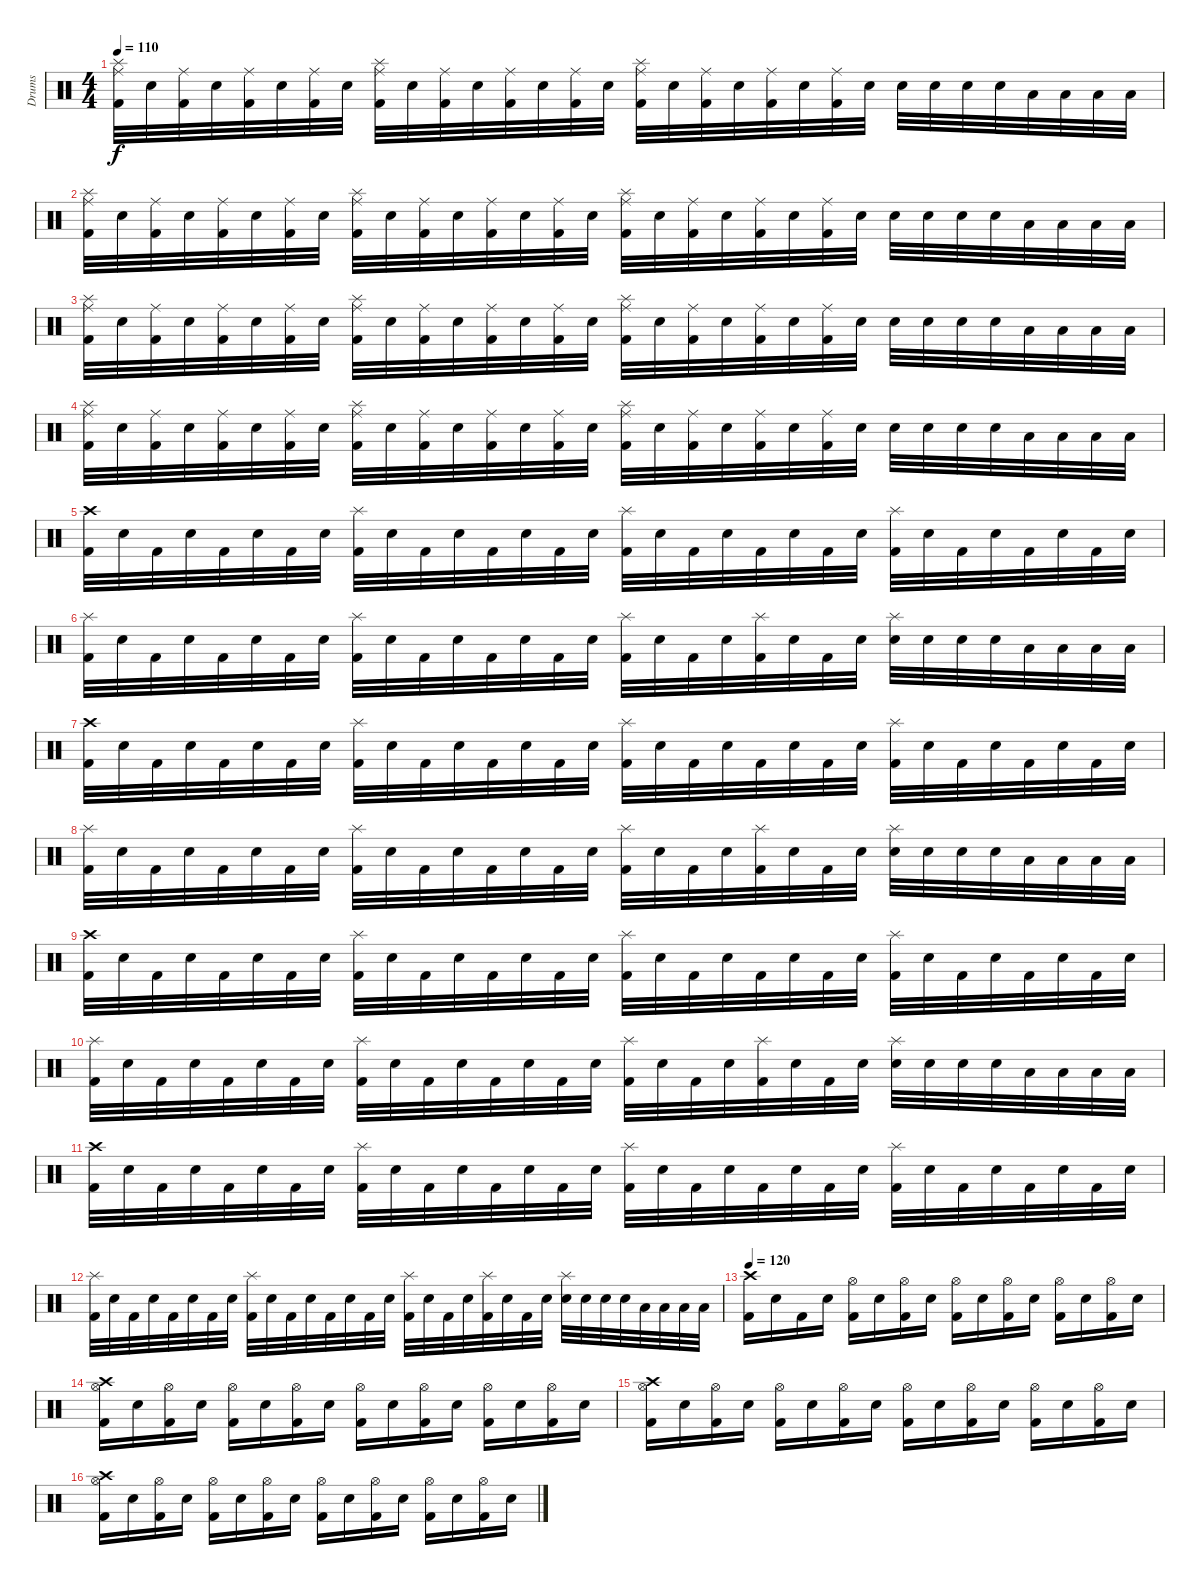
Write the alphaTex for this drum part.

\track ("Drums" "Drums") {instrument percussion}
\staff {score}
\articulation defaults
\ts (4 4)
\tempo 110
\clef neutral
\ks c
("Ride (middle)" "Splash (hit)" "Kick (hit) 2").32{dy f} "Electric Snare (hit)".32 ("Ride (middle)" "Kick (hit) 2").32 "Electric Snare (hit)".32 ("Ride (middle)" "Kick (hit) 2").32 "Electric Snare (hit)".32 ("Ride (middle)" "Kick (hit) 2").32 "Electric Snare (hit)".32 ("Ride (middle)" "Splash (hit)" "Kick (hit) 2").32 "Electric Snare (hit)".32 ("Ride (middle)" "Kick (hit) 2").32 "Electric Snare (hit)".32 ("Ride (middle)" "Kick (hit) 2").32 "Electric Snare (hit)".32 ("Ride (middle)" "Kick (hit) 2").32 "Electric Snare (hit)".32 ("Ride (middle)" "Splash (hit)" "Kick (hit) 2").32 "Electric Snare (hit)".32 ("Ride (middle)" "Kick (hit) 2").32 "Electric Snare (hit)".32 ("Ride (middle)" "Kick (hit) 2").32 "Electric Snare (hit)".32 ("Ride (middle)" "Kick (hit) 2").32 "Electric Snare (hit)".32 "Electric Snare (hit)".32 "Electric Snare (hit)".32 "Electric Snare (hit)".32 "Electric Snare (hit)".32 "Low Tom (hit)".32 "Low Tom (hit)".32 "Low Tom (hit)".32 "Low Tom (hit)".32 |
("Ride (middle)" "Splash (hit)" "Kick (hit) 2").32 "Electric Snare (hit)".32 ("Ride (middle)" "Kick (hit) 2").32 "Electric Snare (hit)".32 ("Ride (middle)" "Kick (hit) 2").32 "Electric Snare (hit)".32 ("Ride (middle)" "Kick (hit) 2").32 "Electric Snare (hit)".32 ("Ride (middle)" "Splash (hit)" "Kick (hit) 2").32 "Electric Snare (hit)".32 ("Ride (middle)" "Kick (hit) 2").32 "Electric Snare (hit)".32 ("Ride (middle)" "Kick (hit) 2").32 "Electric Snare (hit)".32 ("Ride (middle)" "Kick (hit) 2").32 "Electric Snare (hit)".32 ("Ride (middle)" "Splash (hit)" "Kick (hit) 2").32 "Electric Snare (hit)".32 ("Ride (middle)" "Kick (hit) 2").32 "Electric Snare (hit)".32 ("Ride (middle)" "Kick (hit) 2").32 "Electric Snare (hit)".32 ("Ride (middle)" "Kick (hit) 2").32 "Electric Snare (hit)".32 "Electric Snare (hit)".32 "Electric Snare (hit)".32 "Electric Snare (hit)".32 "Electric Snare (hit)".32 "Low Tom (hit)".32 "Low Tom (hit)".32 "Low Tom (hit)".32 "Low Tom (hit)".32 |
("Ride (middle)" "Splash (hit)" "Kick (hit) 2").32 "Electric Snare (hit)".32 ("Ride (middle)" "Kick (hit) 2").32 "Electric Snare (hit)".32 ("Ride (middle)" "Kick (hit) 2").32 "Electric Snare (hit)".32 ("Ride (middle)" "Kick (hit) 2").32 "Electric Snare (hit)".32 ("Ride (middle)" "Splash (hit)" "Kick (hit) 2").32 "Electric Snare (hit)".32 ("Ride (middle)" "Kick (hit) 2").32 "Electric Snare (hit)".32 ("Ride (middle)" "Kick (hit) 2").32 "Electric Snare (hit)".32 ("Ride (middle)" "Kick (hit) 2").32 "Electric Snare (hit)".32 ("Ride (middle)" "Splash (hit)" "Kick (hit) 2").32 "Electric Snare (hit)".32 ("Ride (middle)" "Kick (hit) 2").32 "Electric Snare (hit)".32 ("Ride (middle)" "Kick (hit) 2").32 "Electric Snare (hit)".32 ("Ride (middle)" "Kick (hit) 2").32 "Electric Snare (hit)".32 "Electric Snare (hit)".32 "Electric Snare (hit)".32 "Electric Snare (hit)".32 "Electric Snare (hit)".32 "Low Tom (hit)".32 "Low Tom (hit)".32 "Low Tom (hit)".32 "Low Tom (hit)".32 |
("Ride (middle)" "Splash (hit)" "Kick (hit) 2").32 "Electric Snare (hit)".32 ("Ride (middle)" "Kick (hit) 2").32 "Electric Snare (hit)".32 ("Ride (middle)" "Kick (hit) 2").32 "Electric Snare (hit)".32 ("Ride (middle)" "Kick (hit) 2").32 "Electric Snare (hit)".32 ("Ride (middle)" "Splash (hit)" "Kick (hit) 2").32 "Electric Snare (hit)".32 ("Ride (middle)" "Kick (hit) 2").32 "Electric Snare (hit)".32 ("Ride (middle)" "Kick (hit) 2").32 "Electric Snare (hit)".32 ("Ride (middle)" "Kick (hit) 2").32 "Electric Snare (hit)".32 ("Ride (middle)" "Splash (hit)" "Kick (hit) 2").32 "Electric Snare (hit)".32 ("Ride (middle)" "Kick (hit) 2").32 "Electric Snare (hit)".32 ("Ride (middle)" "Kick (hit) 2").32 "Electric Snare (hit)".32 ("Ride (middle)" "Kick (hit) 2").32 "Electric Snare (hit)".32 "Electric Snare (hit)".32 "Electric Snare (hit)".32 "Electric Snare (hit)".32 "Electric Snare (hit)".32 "Low Tom (hit)".32 "Low Tom (hit)".32 "Low Tom (hit)".32 "Low Tom (hit)".32 |
("Crash high (hit)" "Kick (hit) 2").32 "Electric Snare (hit)".32 "Kick (hit) 2".32 "Electric Snare (hit)".32 "Kick (hit) 2".32 "Electric Snare (hit)".32 "Kick (hit) 2".32 "Electric Snare (hit)".32 ("Splash (hit)" "Kick (hit) 2").32 "Electric Snare (hit)".32 "Kick (hit) 2".32 "Electric Snare (hit)".32 "Kick (hit) 2".32 "Electric Snare (hit)".32 "Kick (hit) 2".32 "Electric Snare (hit)".32 ("Splash (hit)" "Kick (hit) 2").32 "Electric Snare (hit)".32 "Kick (hit) 2".32 "Electric Snare (hit)".32 "Kick (hit) 2".32 "Electric Snare (hit)".32 "Kick (hit) 2".32 "Electric Snare (hit)".32 ("Splash (hit)" "Kick (hit) 2").32 "Electric Snare (hit)".32 "Kick (hit) 2".32 "Electric Snare (hit)".32 "Kick (hit) 2".32 "Electric Snare (hit)".32 "Kick (hit) 2".32 "Electric Snare (hit)".32 |
("Splash (hit)" "Kick (hit) 2").32 "Electric Snare (hit)".32 "Kick (hit) 2".32 "Electric Snare (hit)".32 "Kick (hit) 2".32 "Electric Snare (hit)".32 "Kick (hit) 2".32 "Electric Snare (hit)".32 ("Splash (hit)" "Kick (hit) 2").32 "Electric Snare (hit)".32 "Kick (hit) 2".32 "Electric Snare (hit)".32 "Kick (hit) 2".32 "Electric Snare (hit)".32 "Kick (hit) 2".32 "Electric Snare (hit)".32 ("Splash (hit)" "Kick (hit) 2").32 "Electric Snare (hit)".32 "Kick (hit) 2".32 "Electric Snare (hit)".32 ("Splash (hit)" "Kick (hit) 2").32 "Electric Snare (hit)".32 "Kick (hit) 2".32 "Electric Snare (hit)".32 ("Splash (hit)" "Electric Snare (hit)").32 "Electric Snare (hit)".32 "Electric Snare (hit)".32 "Electric Snare (hit)".32 "Low Tom (hit)".32 "Low Tom (hit)".32 "Low Tom (hit)".32 "Low Tom (hit)".32 |
("Crash high (hit)" "Kick (hit) 2").32 "Electric Snare (hit)".32 "Kick (hit) 2".32 "Electric Snare (hit)".32 "Kick (hit) 2".32 "Electric Snare (hit)".32 "Kick (hit) 2".32 "Electric Snare (hit)".32 ("Splash (hit)" "Kick (hit) 2").32 "Electric Snare (hit)".32 "Kick (hit) 2".32 "Electric Snare (hit)".32 "Kick (hit) 2".32 "Electric Snare (hit)".32 "Kick (hit) 2".32 "Electric Snare (hit)".32 ("Splash (hit)" "Kick (hit) 2").32 "Electric Snare (hit)".32 "Kick (hit) 2".32 "Electric Snare (hit)".32 "Kick (hit) 2".32 "Electric Snare (hit)".32 "Kick (hit) 2".32 "Electric Snare (hit)".32 ("Splash (hit)" "Kick (hit) 2").32 "Electric Snare (hit)".32 "Kick (hit) 2".32 "Electric Snare (hit)".32 "Kick (hit) 2".32 "Electric Snare (hit)".32 "Kick (hit) 2".32 "Electric Snare (hit)".32 |
("Splash (hit)" "Kick (hit) 2").32 "Electric Snare (hit)".32 "Kick (hit) 2".32 "Electric Snare (hit)".32 "Kick (hit) 2".32 "Electric Snare (hit)".32 "Kick (hit) 2".32 "Electric Snare (hit)".32 ("Splash (hit)" "Kick (hit) 2").32 "Electric Snare (hit)".32 "Kick (hit) 2".32 "Electric Snare (hit)".32 "Kick (hit) 2".32 "Electric Snare (hit)".32 "Kick (hit) 2".32 "Electric Snare (hit)".32 ("Splash (hit)" "Kick (hit) 2").32 "Electric Snare (hit)".32 "Kick (hit) 2".32 "Electric Snare (hit)".32 ("Splash (hit)" "Kick (hit) 2").32 "Electric Snare (hit)".32 "Kick (hit) 2".32 "Electric Snare (hit)".32 ("Splash (hit)" "Electric Snare (hit)").32 "Electric Snare (hit)".32 "Electric Snare (hit)".32 "Electric Snare (hit)".32 "Low Tom (hit)".32 "Low Tom (hit)".32 "Low Tom (hit)".32 "Low Tom (hit)".32 |
("Crash high (hit)" "Kick (hit) 2").32 "Electric Snare (hit)".32 "Kick (hit) 2".32 "Electric Snare (hit)".32 "Kick (hit) 2".32 "Electric Snare (hit)".32 "Kick (hit) 2".32 "Electric Snare (hit)".32 ("Splash (hit)" "Kick (hit) 2").32 "Electric Snare (hit)".32 "Kick (hit) 2".32 "Electric Snare (hit)".32 "Kick (hit) 2".32 "Electric Snare (hit)".32 "Kick (hit) 2".32 "Electric Snare (hit)".32 ("Splash (hit)" "Kick (hit) 2").32 "Electric Snare (hit)".32 "Kick (hit) 2".32 "Electric Snare (hit)".32 "Kick (hit) 2".32 "Electric Snare (hit)".32 "Kick (hit) 2".32 "Electric Snare (hit)".32 ("Splash (hit)" "Kick (hit) 2").32 "Electric Snare (hit)".32 "Kick (hit) 2".32 "Electric Snare (hit)".32 "Kick (hit) 2".32 "Electric Snare (hit)".32 "Kick (hit) 2".32 "Electric Snare (hit)".32 |
("Splash (hit)" "Kick (hit) 2").32 "Electric Snare (hit)".32 "Kick (hit) 2".32 "Electric Snare (hit)".32 "Kick (hit) 2".32 "Electric Snare (hit)".32 "Kick (hit) 2".32 "Electric Snare (hit)".32 ("Splash (hit)" "Kick (hit) 2").32 "Electric Snare (hit)".32 "Kick (hit) 2".32 "Electric Snare (hit)".32 "Kick (hit) 2".32 "Electric Snare (hit)".32 "Kick (hit) 2".32 "Electric Snare (hit)".32 ("Splash (hit)" "Kick (hit) 2").32 "Electric Snare (hit)".32 "Kick (hit) 2".32 "Electric Snare (hit)".32 ("Splash (hit)" "Kick (hit) 2").32 "Electric Snare (hit)".32 "Kick (hit) 2".32 "Electric Snare (hit)".32 ("Splash (hit)" "Electric Snare (hit)").32 "Electric Snare (hit)".32 "Electric Snare (hit)".32 "Electric Snare (hit)".32 "Low Tom (hit)".32 "Low Tom (hit)".32 "Low Tom (hit)".32 "Low Tom (hit)".32 |
("Crash high (hit)" "Kick (hit) 2").32 "Electric Snare (hit)".32 "Kick (hit) 2".32 "Electric Snare (hit)".32 "Kick (hit) 2".32 "Electric Snare (hit)".32 "Kick (hit) 2".32 "Electric Snare (hit)".32 ("Splash (hit)" "Kick (hit) 2").32 "Electric Snare (hit)".32 "Kick (hit) 2".32 "Electric Snare (hit)".32 "Kick (hit) 2".32 "Electric Snare (hit)".32 "Kick (hit) 2".32 "Electric Snare (hit)".32 ("Splash (hit)" "Kick (hit) 2").32 "Electric Snare (hit)".32 "Kick (hit) 2".32 "Electric Snare (hit)".32 "Kick (hit) 2".32 "Electric Snare (hit)".32 "Kick (hit) 2".32 "Electric Snare (hit)".32 ("Splash (hit)" "Kick (hit) 2").32 "Electric Snare (hit)".32 "Kick (hit) 2".32 "Electric Snare (hit)".32 "Kick (hit) 2".32 "Electric Snare (hit)".32 "Kick (hit) 2".32 "Electric Snare (hit)".32 |
("Splash (hit)" "Kick (hit) 2").32 "Electric Snare (hit)".32 "Kick (hit) 2".32 "Electric Snare (hit)".32 "Kick (hit) 2".32 "Electric Snare (hit)".32 "Kick (hit) 2".32 "Electric Snare (hit)".32 ("Splash (hit)" "Kick (hit) 2").32 "Electric Snare (hit)".32 "Kick (hit) 2".32 "Electric Snare (hit)".32 "Kick (hit) 2".32 "Electric Snare (hit)".32 "Kick (hit) 2".32 "Electric Snare (hit)".32 ("Splash (hit)" "Kick (hit) 2").32 "Electric Snare (hit)".32 "Kick (hit) 2".32 "Electric Snare (hit)".32 ("Splash (hit)" "Kick (hit) 2").32 "Electric Snare (hit)".32 "Kick (hit) 2".32 "Electric Snare (hit)".32 ("Splash (hit)" "Electric Snare (hit)").32 "Electric Snare (hit)".32 "Electric Snare (hit)".32 "Electric Snare (hit)".32 "Low Tom (hit)".32 "Low Tom (hit)".32 "Low Tom (hit)".32 "Low Tom (hit)".32 |
\tempo 120
("Crash high (hit)" "Kick (hit) 2").16 "Electric Snare (hit)".16 "Kick (hit) 2".16 "Electric Snare (hit)".16 ("Hi-Hat (open)" "Kick (hit) 2").16 "Electric Snare (hit)".16 ("Hi-Hat (open)" "Kick (hit) 2").16 "Electric Snare (hit)".16 ("Hi-Hat (open)" "Kick (hit) 2").16 "Electric Snare (hit)".16 ("Hi-Hat (open)" "Kick (hit) 2").16 "Electric Snare (hit)".16 ("Hi-Hat (open)" "Kick (hit) 2").16 "Electric Snare (hit)".16 ("Hi-Hat (open)" "Kick (hit) 2").16 "Electric Snare (hit)".16 |
("Hi-Hat (open)" "Crash high (hit)" "Kick (hit) 2").16 "Electric Snare (hit)".16 ("Hi-Hat (open)" "Kick (hit) 2").16 "Electric Snare (hit)".16 ("Hi-Hat (open)" "Kick (hit) 2").16 "Electric Snare (hit)".16 ("Hi-Hat (open)" "Kick (hit) 2").16 "Electric Snare (hit)".16 ("Hi-Hat (open)" "Kick (hit) 2").16 "Electric Snare (hit)".16 ("Hi-Hat (open)" "Kick (hit) 2").16 "Electric Snare (hit)".16 ("Hi-Hat (open)" "Kick (hit) 2").16 "Electric Snare (hit)".16 ("Hi-Hat (open)" "Kick (hit) 2").16 "Electric Snare (hit)".16 |
("Hi-Hat (open)" "Crash high (hit)" "Kick (hit) 2").16 "Electric Snare (hit)".16 ("Hi-Hat (open)" "Kick (hit) 2").16 "Electric Snare (hit)".16 ("Hi-Hat (open)" "Kick (hit) 2").16 "Electric Snare (hit)".16 ("Hi-Hat (open)" "Kick (hit) 2").16 "Electric Snare (hit)".16 ("Hi-Hat (open)" "Kick (hit) 2").16 "Electric Snare (hit)".16 ("Hi-Hat (open)" "Kick (hit) 2").16 "Electric Snare (hit)".16 ("Hi-Hat (open)" "Kick (hit) 2").16 "Electric Snare (hit)".16 ("Hi-Hat (open)" "Kick (hit) 2").16 "Electric Snare (hit)".16 |
("Hi-Hat (open)" "Crash high (hit)" "Kick (hit) 2").16 "Electric Snare (hit)".16 ("Hi-Hat (open)" "Kick (hit) 2").16 "Electric Snare (hit)".16 ("Hi-Hat (open)" "Kick (hit) 2").16 "Electric Snare (hit)".16 ("Hi-Hat (open)" "Kick (hit) 2").16 "Electric Snare (hit)".16 ("Hi-Hat (open)" "Kick (hit) 2").16 "Electric Snare (hit)".16 ("Hi-Hat (open)" "Kick (hit) 2").16 "Electric Snare (hit)".16 ("Hi-Hat (open)" "Kick (hit) 2").16 "Electric Snare (hit)".16 ("Hi-Hat (open)" "Kick (hit) 2").16 "Electric Snare (hit)".16
